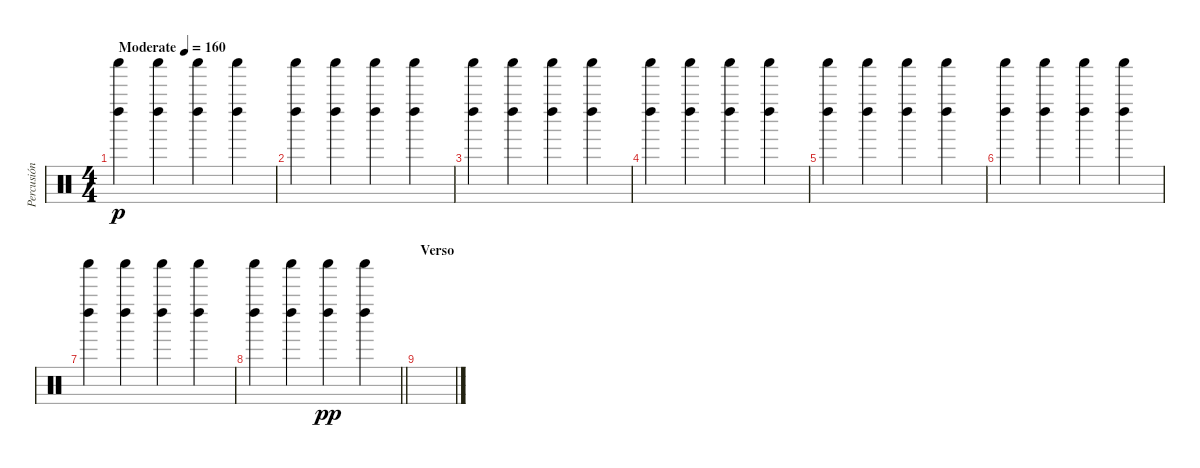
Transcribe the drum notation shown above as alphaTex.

\track ("Percusión" "Percusión") {instrument percussion}
\staff {score}
\articulation defaults
\ts (4 4)
\tempo (160 "Moderate")
\clef neutral
\ks c
("Shaker (hit)" "Left Maraca (hit)").4{dy p} ("Shaker (hit)" "Left Maraca (hit)").4 ("Shaker (hit)" "Left Maraca (hit)").4 ("Shaker (hit)" "Left Maraca (hit)").4 |
("Shaker (hit)" "Left Maraca (hit)").4 ("Shaker (hit)" "Left Maraca (hit)").4 ("Shaker (hit)" "Left Maraca (hit)").4 ("Shaker (hit)" "Left Maraca (hit)").4 |
("Shaker (hit)" "Left Maraca (hit)").4 ("Shaker (hit)" "Left Maraca (hit)").4 ("Shaker (hit)" "Left Maraca (hit)").4 ("Shaker (hit)" "Left Maraca (hit)").4 |
("Shaker (hit)" "Left Maraca (hit)").4 ("Shaker (hit)" "Left Maraca (hit)").4 ("Shaker (hit)" "Left Maraca (hit)").4 ("Shaker (hit)" "Left Maraca (hit)").4 |
("Shaker (hit)" "Left Maraca (hit)").4 ("Shaker (hit)" "Left Maraca (hit)").4 ("Shaker (hit)" "Left Maraca (hit)").4 ("Shaker (hit)" "Left Maraca (hit)").4 |
("Shaker (hit)" "Left Maraca (hit)").4 ("Shaker (hit)" "Left Maraca (hit)").4 ("Shaker (hit)" "Left Maraca (hit)").4 ("Shaker (hit)" "Left Maraca (hit)").4 |
("Shaker (hit)" "Left Maraca (hit)").4 ("Shaker (hit)" "Left Maraca (hit)").4 ("Shaker (hit)" "Left Maraca (hit)").4 ("Shaker (hit)" "Left Maraca (hit)").4 |
\barLineRight lightlight
("Shaker (hit)" "Left Maraca (hit)").4 ("Shaker (hit)" "Left Maraca (hit)").4 ("Shaker (hit)" "Left Maraca (hit)").4{dy pp} ("Shaker (hit)" "Left Maraca (hit)").4 |
\section ("" "Verso")
